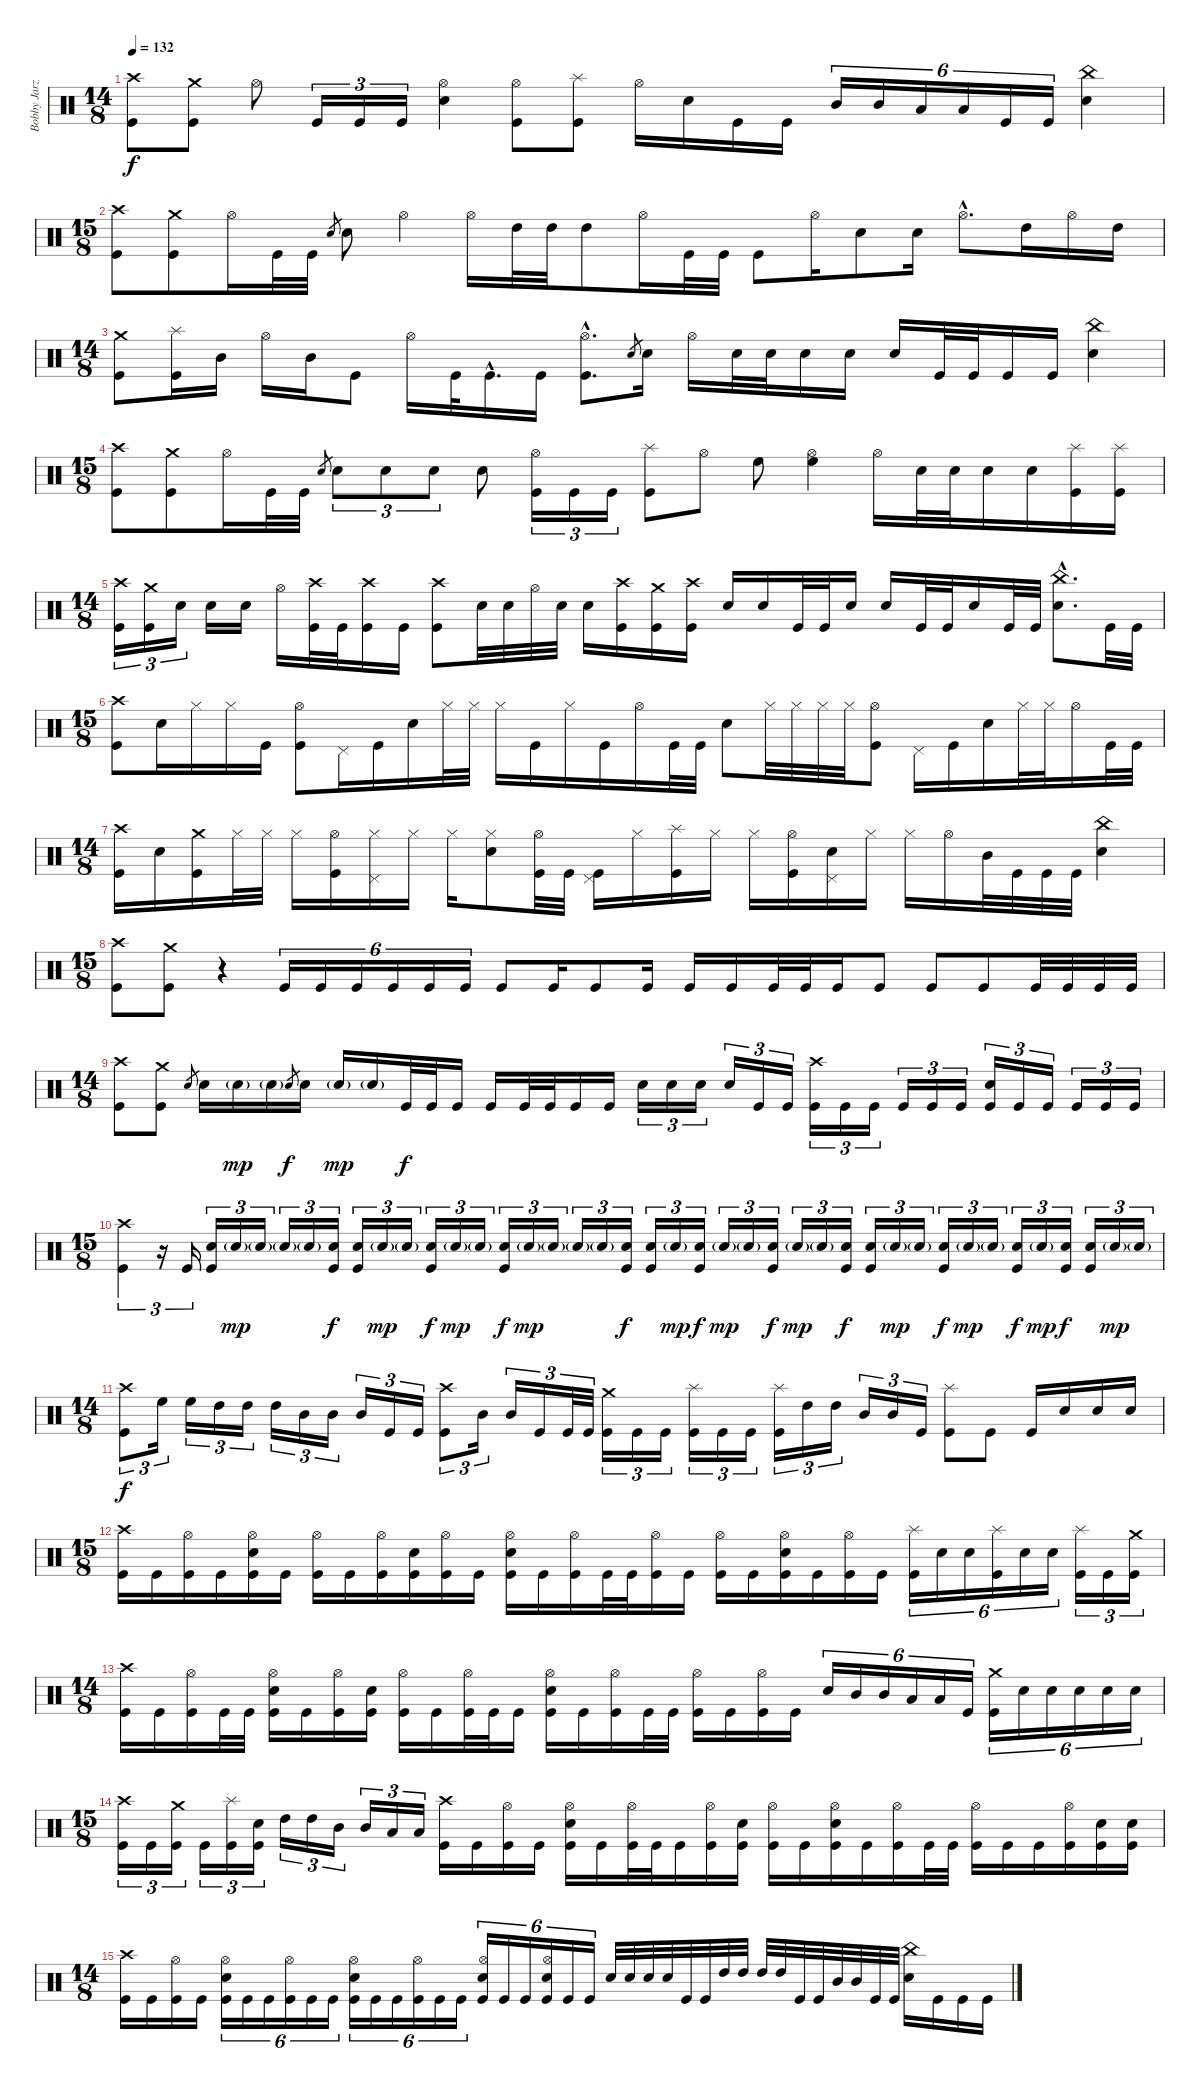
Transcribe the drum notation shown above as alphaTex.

\track ("Bobby Jarzombek" "Bobby Jarz") {instrument percussion}
\staff {score}
\articulation defaults
\ts (14 8)
\tempo 132
\clef neutral
\ks c
("Crash high (hit)" "Kick (hit)").8{dy f} ("Crash medium (hit)" "Kick (hit)").8 "Hi-Hat (open)".8 "Kick (hit)".16{tu (3 2)} "Kick (hit)".16{tu (3 2)} "Kick (hit)".16{tu (3 2)} ("Hi-Hat (open)" "Electric Snare (hit)").4 ("Hi-Hat (open)" "Kick (hit)").8 ("Splash (hit)" "Kick (hit)").8 "Hi-Hat (open)".16 "Electric Snare (hit)".16 "Kick (hit)".16 "Kick (hit)".16 "Mid Tom (hit)".16{tu (6 4)} "Mid Tom (hit)".16{tu (6 4)} "Low Tom (hit)".16{tu (6 4)} "Low Tom (hit)".16{tu (6 4)} "Kick (hit)".16{tu (6 4)} "Kick (hit)".16{tu (6 4)} ("China (hit)" "Electric Snare (hit)").4 |
\ts (15 8)
("Crash high (hit)" "Kick (hit)").8 ("Crash medium (hit)" "Kick (hit)").8 "Hi-Hat (open)".16 "Kick (hit)".32 "Kick (hit)".32 "Electric Snare (hit)".8{gr} "Electric Snare (hit)".8 "Hi-Hat (open)".4 "Hi-Hat (open)".16 "High Tom (hit)".32 "High Tom (hit)".32 "High Tom (hit)".8 "Hi-Hat (open)".16 "Kick (hit)".32 "Kick (hit)".32 "Kick (hit)".8 "Hi-Hat (open)".16 "Electric Snare (hit)".8 "Electric Snare (hit)".16 "Hi-Hat (open)"{hac}.8{d} "High Tom (hit)".16 "Hi-Hat (open)".16 "High Tom (hit)".16 |
\ts (14 8)
("Crash medium (hit)" "Kick (hit)").8 ("Splash (hit)" "Kick (hit)").16 "Mid Tom (hit)".16 "Hi-Hat (open)".16 "Mid Tom (hit)".16 "Kick (hit)".8 "Hi-Hat (open)".16 "Kick (hit)".32 "Kick (hit)"{hac}.16{d} "Kick (hit)".16 ("Hi-Hat (open)"{hac} "Kick (hit)"{hac}).8{d} "Electric Snare (hit)".8{gr} "Electric Snare (hit)".16 "Hi-Hat (open)".16 "Electric Snare (hit)".32 "Electric Snare (hit)".32 "Electric Snare (hit)".16 "Electric Snare (hit)".16 "Electric Snare (hit)".16 "Kick (hit)".32 "Kick (hit)".32 "Kick (hit)".16 "Kick (hit)".16 ("China (hit)" "Electric Snare (hit)").4 |
\ts (15 8)
("Crash high (hit)" "Kick (hit)").8 ("Crash medium (hit)" "Kick (hit)").8 "Hi-Hat (open)".16 "Kick (hit)".32 "Kick (hit)".32 "Electric Snare (hit)".8{gr} "Electric Snare (hit)".8{tu (3 2)} "Electric Snare (hit)".8{tu (3 2)} "Electric Snare (hit)".8{tu (3 2)} "Electric Snare (hit)".8 ("Hi-Hat (open)" "Kick (hit)").16{tu (3 2)} "Kick (hit)".16{tu (3 2)} "Kick (hit)".16{tu (3 2)} ("Splash (hit)" "Kick (hit)").8 "Hi-Hat (open)".8 "High Floor Tom (hit)".8 ("Hi-Hat (open)" "High Floor Tom (hit)").4 "Hi-Hat (open)".16 "Electric Snare (hit)".32 "Electric Snare (hit)".32 "Electric Snare (hit)".16 "Electric Snare (hit)".16 ("Splash (hit)" "Kick (hit)").16 ("Splash (hit)" "Kick (hit)").16 |
\ts (14 8)
("Crash high (hit)" "Kick (hit)").16{tu (3 2)} ("Crash medium (hit)" "Kick (hit)").16{tu (3 2)} "Electric Snare (hit)".16{tu (3 2)} "Electric Snare (hit)".16 "Electric Snare (hit)".16 "Hi-Hat (open)".16 ("Crash high (hit)" "Kick (hit)").32 "Kick (hit)".32 ("Crash high (hit)" "Kick (hit)").16 "Kick (hit)".16 ("Crash high (hit)" "Kick (hit)").8 "Electric Snare (hit)".32 "Electric Snare (hit)".32 "Hi-Hat (open)".32 "Electric Snare (hit)".32 "Electric Snare (hit)".16 ("Crash high (hit)" "Kick (hit)").16 ("Crash medium (hit)" "Kick (hit)").16 ("Crash high (hit)" "Kick (hit)").16 "Electric Snare (hit)".16 "Electric Snare (hit)".16 "Kick (hit)".32 "Kick (hit)".32 "Electric Snare (hit)".16 "Electric Snare (hit)".16 "Kick (hit)".32 "Kick (hit)".32 "Electric Snare (hit)".16 "Kick (hit)".32 "Kick (hit)".32 ("China (hit)"{hac} "Electric Snare (hit)"{hac}).8{d} "Kick (hit)".32 "Kick (hit)".32 |
\ts (15 8)
("Crash high (hit)" "Kick (hit)").8 "Electric Snare (hit)".16 "Hi-Hat (closed)".16 "Hi-Hat (closed)".16 "Kick (hit)".16 ("Hi-Hat (open)" "Kick (hit)").8 "Pedal Hi-Hat (hit)".16 "Kick (hit)".16 "Electric Snare (hit)".16 "Hi-Hat (closed)".32 "Hi-Hat (closed)".32 "Hi-Hat (closed)".16 "Kick (hit)".16 "Hi-Hat (closed)".16 "Kick (hit)".16 "Hi-Hat (open)".16 "Kick (hit)".32 "Kick (hit)".32 "Electric Snare (hit)".8 "Hi-Hat (closed)".32 "Hi-Hat (closed)".32 "Hi-Hat (closed)".32 "Hi-Hat (closed)".32 ("Hi-Hat (open)" "Kick (hit)").8 "Pedal Hi-Hat (hit)".16 "Kick (hit)".16 "Electric Snare (hit)".16 "Hi-Hat (closed)".32 "Hi-Hat (closed)".32 "Hi-Hat (open)".16 "Kick (hit)".32 "Kick (hit)".32 |
\ts (14 8)
("Crash high (hit)" "Kick (hit)").16 "Electric Snare (hit)".16 ("Crash medium (hit)" "Kick (hit)").16 "Hi-Hat (closed)".32 "Hi-Hat (closed)".32 "Hi-Hat (closed)".16 ("Hi-Hat (open)" "Kick (hit)").16 ("Hi-Hat (closed)" "Pedal Hi-Hat (hit)").16 "Hi-Hat (closed)".16 "Hi-Hat (closed)".16 ("Hi-Hat (closed)" "Electric Snare (hit)").8 ("Hi-Hat (open)" "Kick (hit)").32 "Kick (hit)".32 ("Pedal Hi-Hat (hit)" "Kick (hit)").16 "Hi-Hat (closed)".16 ("Splash (hit)" "Kick (hit)").16 "Hi-Hat (closed)".16 "Hi-Hat (closed)".16 ("Hi-Hat (open)" "Kick (hit)").16 ("Electric Snare (hit)" "Pedal Hi-Hat (hit)").16 "Hi-Hat (closed)".16 "Hi-Hat (closed)".16 "Hi-Hat (open)".16 "Mid Tom (hit)".32 "Kick (hit)".32 "Kick (hit)".32 "Kick (hit)".32 ("China (hit)" "Electric Snare (hit)").4 |
\ts (15 8)
("Crash high (hit)" "Kick (hit)").8 ("Crash medium (hit)" "Kick (hit)").8 r.4 "Kick (hit)".16{tu (6 4)} "Kick (hit)".16{tu (6 4)} "Kick (hit)".16{tu (6 4)} "Kick (hit)".16{tu (6 4)} "Kick (hit)".16{tu (6 4)} "Kick (hit)".16{tu (6 4)} "Kick (hit)".8 "Kick (hit)".16 "Kick (hit)".8 "Kick (hit)".16 "Kick (hit)".16 "Kick (hit)".16 "Kick (hit)".32 "Kick (hit)".32 "Kick (hit)".16 "Kick (hit)".8 "Kick (hit)".8 "Kick (hit)".8 "Kick (hit)".32 "Kick (hit)".32 "Kick (hit)".32 "Kick (hit)".32 |
\ts (14 8)
("Crash high (hit)" "Kick (hit)").8 ("Crash medium (hit)" "Kick (hit)").8 "Electric Snare (hit)".8{gr} "Electric Snare (hit)".16 "Electric Snare (hit)"{g}.16{dy mp} "Electric Snare (hit)"{g}.16 "Electric Snare (hit)".8{gr dy f} "Electric Snare (hit)".16 "Electric Snare (hit)"{g}.16{dy mp} "Electric Snare (hit)"{g}.16 "Kick (hit)".32{dy f} "Kick (hit)".32 "Kick (hit)".16 "Kick (hit)".16 "Kick (hit)".32 "Kick (hit)".32 "Kick (hit)".16 "Kick (hit)".16 "Electric Snare (hit)".16{tu (3 2)} "Electric Snare (hit)".16{tu (3 2)} "Electric Snare (hit)".16{tu (3 2)} "Electric Snare (hit)".16{tu (3 2)} "Kick (hit)".16{tu (3 2)} "Kick (hit)".16{tu (3 2)} ("Crash high (hit)" "Kick (hit)").16{tu (3 2)} "Kick (hit)".16{tu (3 2)} "Kick (hit)".16{tu (3 2)} "Kick (hit)".16{tu (3 2)} "Kick (hit)".16{tu (3 2)} "Kick (hit)".16{tu (3 2)} ("Electric Snare (hit)" "Kick (hit)").16{tu (3 2)} "Kick (hit)".16{tu (3 2)} "Kick (hit)".16{tu (3 2)} "Kick (hit)".16{tu (3 2)} "Kick (hit)".16{tu (3 2)} "Kick (hit)".16{tu (3 2)} |
\ts (15 8)
("Crash high (hit)" "Kick (hit)").4{tu (3 2) volume 11} r.16{tu (3 2)} "Kick (hit)".16{tu (3 2)} ("Electric Snare (hit)" "Kick (hit)").16{tu (3 2)} "Electric Snare (hit)"{g}.16{tu (3 2) dy mp} "Electric Snare (hit)"{g}.16{tu (3 2)} "Electric Snare (hit)"{g}.16{tu (3 2)} "Electric Snare (hit)"{g}.16{tu (3 2)} ("Electric Snare (hit)" "Kick (hit)").16{tu (3 2) dy f} ("Electric Snare (hit)" "Kick (hit)").16{tu (3 2)} "Electric Snare (hit)"{g}.16{tu (3 2) dy mp} "Electric Snare (hit)"{g}.16{tu (3 2)} ("Electric Snare (hit)" "Kick (hit)").16{tu (3 2) dy f} "Electric Snare (hit)"{g}.16{tu (3 2) dy mp} "Electric Snare (hit)"{g}.16{tu (3 2)} ("Electric Snare (hit)" "Kick (hit)").16{tu (3 2) dy f} "Electric Snare (hit)"{g}.16{tu (3 2) dy mp} "Electric Snare (hit)"{g}.16{tu (3 2)} "Electric Snare (hit)"{g}.16{tu (3 2)} "Electric Snare (hit)"{g}.16{tu (3 2)} ("Electric Snare (hit)" "Kick (hit)").16{tu (3 2) dy f} ("Electric Snare (hit)" "Kick (hit)").16{tu (3 2)} "Electric Snare (hit)"{g}.16{tu (3 2) dy mp} ("Electric Snare (hit)" "Kick (hit)").16{tu (3 2) dy f} "Electric Snare (hit)"{g}.16{tu (3 2) dy mp} "Electric Snare (hit)"{g}.16{tu (3 2)} ("Electric Snare (hit)" "Kick (hit)").16{tu (3 2) dy f} "Electric Snare (hit)"{g}.16{tu (3 2) dy mp} "Electric Snare (hit)"{g}.16{tu (3 2)} ("Electric Snare (hit)" "Kick (hit)").16{tu (3 2) dy f} ("Electric Snare (hit)" "Kick (hit)").16{tu (3 2)} "Electric Snare (hit)"{g}.16{tu (3 2) dy mp} "Electric Snare (hit)"{g}.16{tu (3 2)} ("Electric Snare (hit)" "Kick (hit)").16{tu (3 2) dy f} "Electric Snare (hit)"{g}.16{tu (3 2) dy mp} "Electric Snare (hit)"{g}.16{tu (3 2)} ("Electric Snare (hit)" "Kick (hit)").16{tu (3 2) dy f} "Electric Snare (hit)"{g}.16{tu (3 2) dy mp} ("Electric Snare (hit)" "Kick (hit)").16{tu (3 2) dy f} ("Electric Snare (hit)" "Kick (hit)").16{tu (3 2)} "Electric Snare (hit)"{g}.16{tu (3 2) dy mp} "Electric Snare (hit)"{g}.16{tu (3 2)} |
\ts (14 8)
("Crash high (hit)" "Kick (hit)").8{tu (3 2) dy f} "High Floor Tom (hit)".16{tu (3 2)} "High Floor Tom (hit)".16{tu (3 2)} "High Tom (hit)".16{tu (3 2)} "High Tom (hit)".16{tu (3 2)} "High Tom (hit)".16{tu (3 2) volume 7} "Mid Tom (hit)".16{tu (3 2)} "Mid Tom (hit)".16{tu (3 2)} "Mid Tom (hit)".16{tu (3 2)} "Kick (hit)".16{tu (3 2)} "Kick (hit)".16{tu (3 2)} ("Crash high (hit)" "Kick (hit)").8{tu (3 2)} "Mid Tom (hit)".16{tu (3 2)} "Mid Tom (hit)".16{tu (3 2)} "Kick (hit)".16{tu (3 2)} "Kick (hit)".32{tu (3 2)} "Kick (hit)".32{tu (3 2)} ("Crash medium (hit)" "Kick (hit)").16{tu (3 2)} "Kick (hit)".16{tu (3 2)} "Kick (hit)".16{tu (3 2)} ("Splash (hit)" "Kick (hit)").16{tu (3 2)} "Kick (hit)".16{tu (3 2)} "Kick (hit)".16{tu (3 2)} ("Splash (hit)" "Kick (hit)").16{tu (3 2)} "High Tom (hit)".16{tu (3 2)} "High Tom (hit)".16{tu (3 2)} "Mid Tom (hit)".16{tu (3 2)} "Mid Tom (hit)".16{tu (3 2)} "Kick (hit)".16{tu (3 2)} ("Splash (hit)" "Kick (hit)").8 "Kick (hit)".8 "Kick (hit)".16 "Electric Snare (hit)".16 "Electric Snare (hit)".16 "Electric Snare (hit)".16 |
\ts (15 8)
("Crash high (hit)" "Kick (hit)").16 "Kick (hit)".16 ("Hi-Hat (open)" "Kick (hit)").16 "Kick (hit)".16 ("Hi-Hat (open)" "Electric Snare (hit)" "Kick (hit)").16 "Kick (hit)".16 ("Hi-Hat (open)" "Kick (hit)").16 "Kick (hit)".16 ("Hi-Hat (open)" "Kick (hit)").16 ("Electric Snare (hit)" "Kick (hit)").16 ("Hi-Hat (open)" "Kick (hit)").16 "Kick (hit)".16 ("Hi-Hat (open)" "Electric Snare (hit)" "Kick (hit)").16 "Kick (hit)".16 ("Hi-Hat (open)" "Kick (hit)").16 "Kick (hit)".32 "Kick (hit)".32 ("Hi-Hat (open)" "Kick (hit)").16 "Kick (hit)".16 ("Hi-Hat (open)" "Kick (hit)").16 "Kick (hit)".16 ("Hi-Hat (open)" "Electric Snare (hit)" "Kick (hit)").16 "Kick (hit)".16 ("Hi-Hat (open)" "Kick (hit)").16 "Kick (hit)".16 ("Splash (hit)" "Kick (hit)").16{tu (6 4)} "Electric Snare (hit)".16{tu (6 4)} "Electric Snare (hit)".16{tu (6 4)} ("Splash (hit)" "Kick (hit)").16{tu (6 4)} "Electric Snare (hit)".16{tu (6 4)} "Electric Snare (hit)".16{tu (6 4)} ("Splash (hit)" "Kick (hit)").16{tu (3 2)} "Kick (hit)".16{tu (3 2)} ("Crash medium (hit)" "Kick (hit)").16{tu (3 2)} |
\ts (14 8)
("Crash high (hit)" "Kick (hit)").16 "Kick (hit)".16 ("Hi-Hat (open)" "Kick (hit)").16 "Kick (hit)".32 "Kick (hit)".32 ("Hi-Hat (open)" "Electric Snare (hit)" "Kick (hit)").16 "Kick (hit)".16 ("Hi-Hat (open)" "Kick (hit)").16 ("Electric Snare (hit)" "Kick (hit)").16 ("Hi-Hat (open)" "Kick (hit)").16 "Kick (hit)".16 ("Hi-Hat (open)" "Kick (hit)").32 "Kick (hit)".32 "Kick (hit)".16 ("Hi-Hat (open)" "Electric Snare (hit)" "Kick (hit)").16 "Kick (hit)".16 ("Hi-Hat (open)" "Kick (hit)").16 "Kick (hit)".32 "Kick (hit)".32 ("Hi-Hat (open)" "Kick (hit)").16 "Kick (hit)".16 ("Hi-Hat (open)" "Kick (hit)").16{volume 0} "Kick (hit)".16 "Electric Snare (hit)".16{tu (6 4)} "Mid Tom (hit)".16{tu (6 4)} "Mid Tom (hit)".16{tu (6 4)} "Low Tom (hit)".16{tu (6 4)} "Low Tom (hit)".16{tu (6 4)} "Kick (hit)".16{tu (6 4)} ("Crash medium (hit)" "Kick (hit)").16{tu (6 4)} "Electric Snare (hit)".16{tu (6 4)} "Electric Snare (hit)".16{tu (6 4)} "Electric Snare (hit)".16{tu (6 4)} "Electric Snare (hit)".16{tu (6 4)} "Electric Snare (hit)".16{tu (6 4)} |
\ts (15 8)
("Crash high (hit)" "Kick (hit)").16{tu (3 2)} "Kick (hit)".16{tu (3 2)} ("Crash medium (hit)" "Kick (hit)").16{tu (3 2)} "Kick (hit)".16{tu (3 2)} ("Splash (hit)" "Kick (hit)").16{tu (3 2)} ("Electric Snare (hit)" "Kick (hit)").16{tu (3 2)} "High Tom (hit)".16{tu (3 2)} "High Tom (hit)".16{tu (3 2)} "Mid Tom (hit)".16{tu (3 2)} "Mid Tom (hit)".16{tu (3 2)} "Low Tom (hit)".16{tu (3 2)} "Low Tom (hit)".16{tu (3 2)} ("Crash high (hit)" "Kick (hit)").16 "Kick (hit)".16 ("Hi-Hat (open)" "Kick (hit)").16 "Kick (hit)".16 ("Hi-Hat (open)" "Electric Snare (hit)" "Kick (hit)").16 "Kick (hit)".16 ("Hi-Hat (open)" "Kick (hit)").32 "Kick (hit)".32 "Kick (hit)".16 ("Hi-Hat (open)" "Kick (hit)").16 ("Electric Snare (hit)" "Kick (hit)").16 ("Hi-Hat (open)" "Kick (hit)").16 "Kick (hit)".16 ("Hi-Hat (open)" "Electric Snare (hit)" "Kick (hit)").16 "Kick (hit)".16 ("Hi-Hat (open)" "Kick (hit)").16 "Kick (hit)".32 "Kick (hit)".32 ("Hi-Hat (open)" "Kick (hit)").16 "Kick (hit)".16 "Kick (hit)".16 ("Hi-Hat (open)" "Kick (hit)").16 ("Electric Snare (hit)" "Kick (hit)").16 ("Electric Snare (hit)" "Kick (hit)").16 |
\ts (14 8)
("Crash high (hit)" "Kick (hit)").16 "Kick (hit)".16 ("Hi-Hat (open)" "Kick (hit)").16 "Kick (hit)".16 ("Hi-Hat (open)" "Electric Snare (hit)" "Kick (hit)").16{tu (6 4)} "Kick (hit)".16{tu (6 4)} "Kick (hit)".16{tu (6 4)} ("Hi-Hat (open)" "Kick (hit)").16{tu (6 4)} "Kick (hit)".16{tu (6 4)} "Kick (hit)".16{tu (6 4)} ("Hi-Hat (open)" "Electric Snare (hit)" "Kick (hit)").16{tu (6 4)} "Kick (hit)".16{tu (6 4)} "Kick (hit)".16{tu (6 4)} ("Hi-Hat (open)" "Kick (hit)").16{tu (6 4)} "Kick (hit)".16{tu (6 4)} "Kick (hit)".16{tu (6 4)} ("Hi-Hat (open)" "Electric Snare (hit)" "Kick (hit)").16{tu (6 4)} "Kick (hit)".16{tu (6 4)} "Kick (hit)".16{tu (6 4)} ("Hi-Hat (open)" "Electric Snare (hit)" "Kick (hit)").16{tu (6 4)} "Kick (hit)".16{tu (6 4)} "Kick (hit)".16{tu (6 4)} "Electric Snare (hit)".32 "Electric Snare (hit)".32 "Electric Snare (hit)".32 "Electric Snare (hit)".32 "Kick (hit)".32 "Kick (hit)".32 "High Tom (hit)".32 "High Tom (hit)".32 "High Tom (hit)".32 "High Tom (hit)".32 "Kick (hit)".32 "Kick (hit)".32 "Mid Tom (hit)".32 "Mid Tom (hit)".32 "Kick (hit)".32 "Kick (hit)".32 ("China (hit)" "Electric Snare (hit)").16 "Kick (hit)".16 "Kick (hit)".16 "Kick (hit)".16
